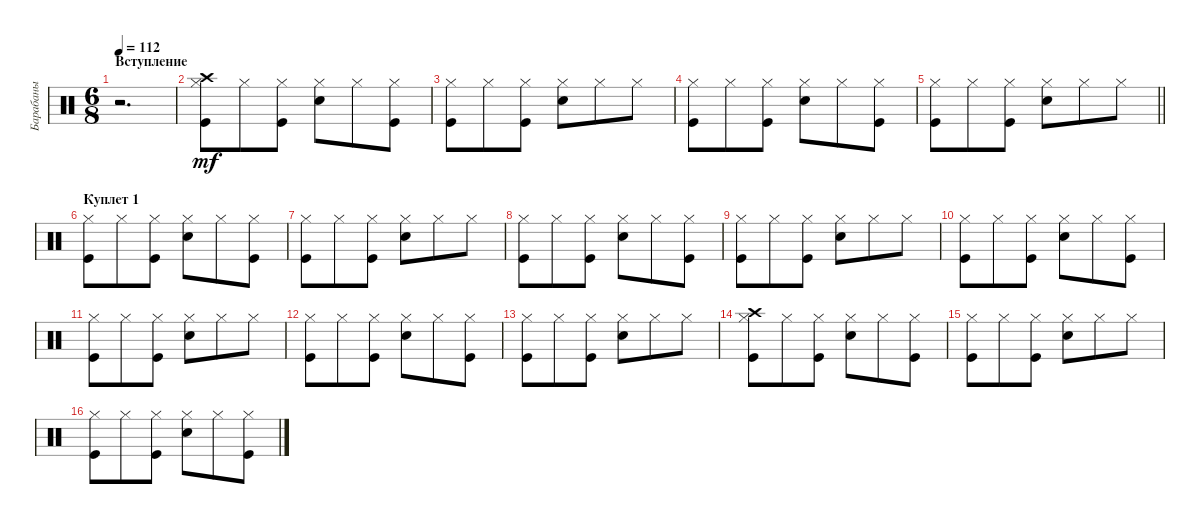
\track ("Барабаны" "Барабаны") {instrument percussion}
\staff {score}
\articulation defaults
\ts (6 8)
\section ("" "Вступление")
\tempo 112
\clef neutral
\ks c
r.2{d dy mf} |
("Kick (hit)" "Hi-Hat (closed)" "Crash high (hit)").8 "Hi-Hat (closed)".8 ("Kick (hit)" "Hi-Hat (closed)").8 ("Snare (hit) 2" "Hi-Hat (closed)").8 "Hi-Hat (closed)".8 ("Kick (hit)" "Hi-Hat (closed)").8 |
("Kick (hit)" "Hi-Hat (closed)").8 "Hi-Hat (closed)".8 ("Kick (hit)" "Hi-Hat (closed)").8 ("Snare (hit) 2" "Hi-Hat (closed)").8 "Hi-Hat (closed)".8 "Hi-Hat (closed)".8 |
("Kick (hit)" "Hi-Hat (closed)").8 "Hi-Hat (closed)".8 ("Kick (hit)" "Hi-Hat (closed)").8 ("Snare (hit) 2" "Hi-Hat (closed)").8 "Hi-Hat (closed)".8 ("Kick (hit)" "Hi-Hat (closed)").8 |
\barLineRight lightlight
("Kick (hit)" "Hi-Hat (closed)").8 "Hi-Hat (closed)".8 ("Kick (hit)" "Hi-Hat (closed)").8 ("Snare (hit) 2" "Hi-Hat (closed)").8 "Hi-Hat (closed)".8 "Hi-Hat (closed)".8 |
\section ("" "Куплет 1")
("Kick (hit)" "Hi-Hat (closed)").8 "Hi-Hat (closed)".8 ("Kick (hit)" "Hi-Hat (closed)").8 ("Snare (hit) 2" "Hi-Hat (closed)").8 "Hi-Hat (closed)".8 ("Kick (hit)" "Hi-Hat (closed)").8 |
("Kick (hit)" "Hi-Hat (closed)").8 "Hi-Hat (closed)".8 ("Kick (hit)" "Hi-Hat (closed)").8 ("Snare (hit) 2" "Hi-Hat (closed)").8 "Hi-Hat (closed)".8 "Hi-Hat (closed)".8 |
("Kick (hit)" "Hi-Hat (closed)").8 "Hi-Hat (closed)".8 ("Kick (hit)" "Hi-Hat (closed)").8 ("Snare (hit) 2" "Hi-Hat (closed)").8 "Hi-Hat (closed)".8 ("Kick (hit)" "Hi-Hat (closed)").8 |
("Kick (hit)" "Hi-Hat (closed)").8 "Hi-Hat (closed)".8 ("Kick (hit)" "Hi-Hat (closed)").8 ("Snare (hit) 2" "Hi-Hat (closed)").8 "Hi-Hat (closed)".8 "Hi-Hat (closed)".8 |
("Kick (hit)" "Hi-Hat (closed)").8 "Hi-Hat (closed)".8 ("Kick (hit)" "Hi-Hat (closed)").8 ("Snare (hit) 2" "Hi-Hat (closed)").8 "Hi-Hat (closed)".8 ("Kick (hit)" "Hi-Hat (closed)").8 |
("Kick (hit)" "Hi-Hat (closed)").8 "Hi-Hat (closed)".8 ("Kick (hit)" "Hi-Hat (closed)").8 ("Snare (hit) 2" "Hi-Hat (closed)").8 "Hi-Hat (closed)".8 "Hi-Hat (closed)".8 |
("Kick (hit)" "Hi-Hat (closed)").8 "Hi-Hat (closed)".8 ("Kick (hit)" "Hi-Hat (closed)").8 ("Snare (hit) 2" "Hi-Hat (closed)").8 "Hi-Hat (closed)".8 ("Kick (hit)" "Hi-Hat (closed)").8 |
("Kick (hit)" "Hi-Hat (closed)").8 "Hi-Hat (closed)".8 ("Kick (hit)" "Hi-Hat (closed)").8 ("Snare (hit) 2" "Hi-Hat (closed)").8 "Hi-Hat (closed)".8 "Hi-Hat (closed)".8 |
("Kick (hit)" "Hi-Hat (closed)" "Crash high (hit)").8 "Hi-Hat (closed)".8 ("Kick (hit)" "Hi-Hat (closed)").8 ("Snare (hit) 2" "Hi-Hat (closed)").8 "Hi-Hat (closed)".8 ("Kick (hit)" "Hi-Hat (closed)").8 |
("Kick (hit)" "Hi-Hat (closed)").8 "Hi-Hat (closed)".8 ("Kick (hit)" "Hi-Hat (closed)").8 ("Snare (hit) 2" "Hi-Hat (closed)").8 "Hi-Hat (closed)".8 "Hi-Hat (closed)".8 |
("Kick (hit)" "Hi-Hat (closed)").8 "Hi-Hat (closed)".8 ("Kick (hit)" "Hi-Hat (closed)").8 ("Snare (hit) 2" "Hi-Hat (closed)").8 "Hi-Hat (closed)".8 ("Kick (hit)" "Hi-Hat (closed)").8
